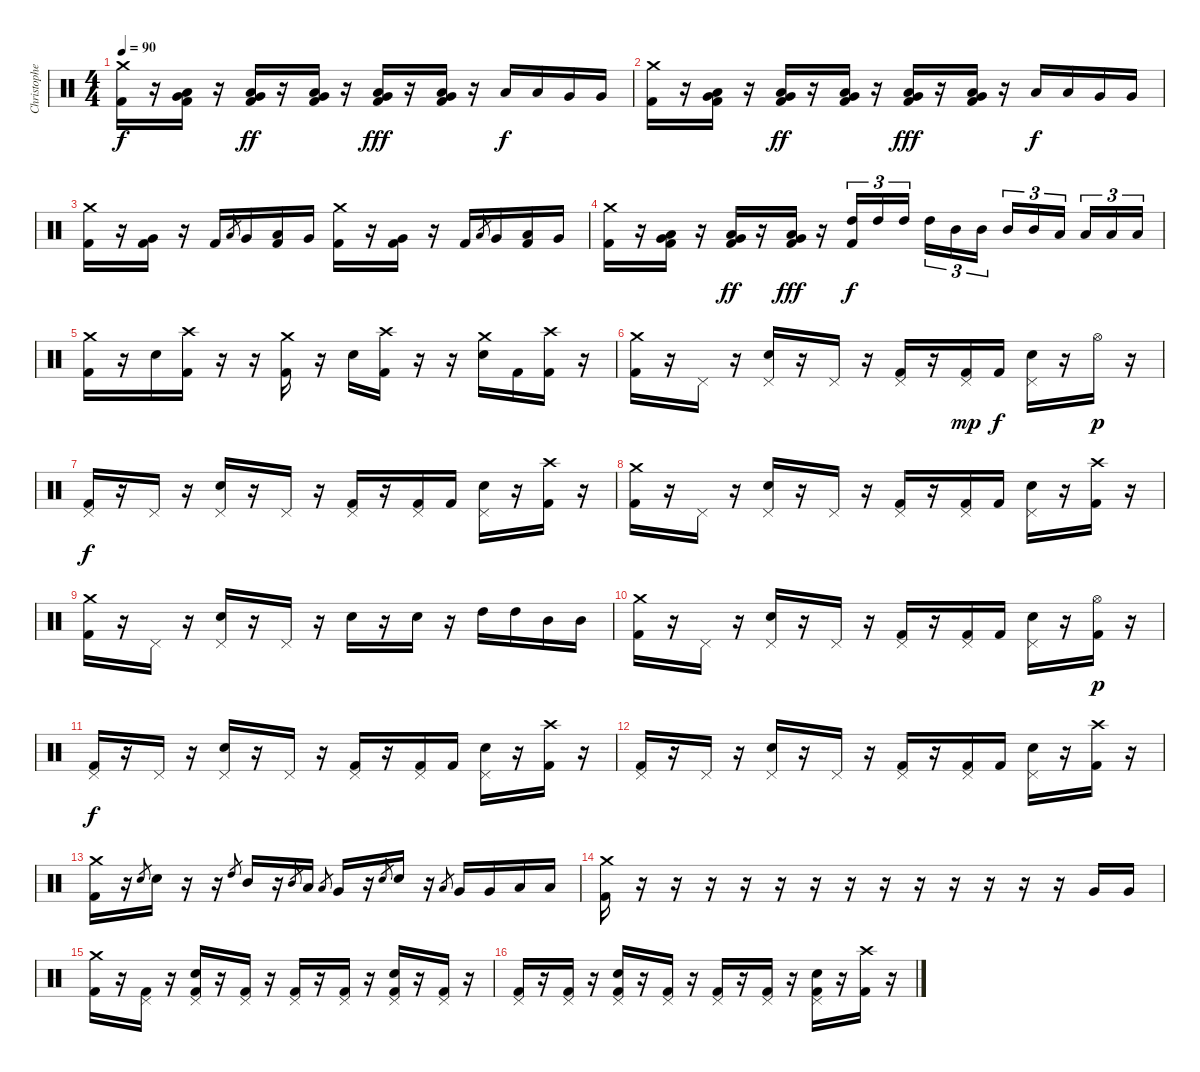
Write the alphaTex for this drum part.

\track ("Christopher Kinder" "Christophe") {instrument percussion}
\staff {score}
\articulation defaults
\ts (4 4)
\tempo 90
\clef neutral
\ks c
("Crash medium (hit)" "Kick (hit) 2").16{dy f} r.16 ("Very Low Tom (hit)" "Low Tom (hit)" "Kick (hit) 2").16 r.16 ("Very Low Tom (hit)" "Low Tom (hit)" "Kick (hit) 2").16{dy ff} r.16 ("Very Low Tom (hit)" "Low Tom (hit)" "Kick (hit) 2").16 r.16 ("Very Low Tom (hit)" "Low Tom (hit)" "Kick (hit) 2").16{dy fff} r.16 ("Very Low Tom (hit)" "Low Tom (hit)" "Kick (hit) 2").16 r.16 "Low Tom (hit)".16{dy f} "Low Tom (hit)".16 "Very Low Tom (hit)".16 "Very Low Tom (hit)".16 |
("Crash medium (hit)" "Kick (hit) 2").16 r.16 ("Very Low Tom (hit)" "Low Tom (hit)" "Kick (hit) 2").16 r.16 ("Very Low Tom (hit)" "Low Tom (hit)" "Kick (hit) 2").16{dy ff} r.16 ("Very Low Tom (hit)" "Low Tom (hit)" "Kick (hit) 2").16 r.16 ("Very Low Tom (hit)" "Low Tom (hit)" "Kick (hit) 2").16{dy fff} r.16 ("Very Low Tom (hit)" "Low Tom (hit)" "Kick (hit) 2").16 r.16 "Low Tom (hit)".16{dy f} "Low Tom (hit)".16 "Very Low Tom (hit)".16 "Very Low Tom (hit)".16 |
("Crash medium (hit)" "Kick (hit) 2").16 r.16 ("Very Low Tom (hit)" "Kick (hit) 2").16 r.16 "Kick (hit) 2".16 "Low Tom (hit)".8{gr} "Very Low Tom (hit)".16 ("Low Tom (hit)" "Kick (hit) 2").16 "Very Low Tom (hit)".16 ("Crash medium (hit)" "Kick (hit) 2").16 r.16 ("Very Low Tom (hit)" "Kick (hit) 2").16 r.16 "Kick (hit) 2".16 "Low Tom (hit)".8{gr} "Very Low Tom (hit)".16 ("Low Tom (hit)" "Kick (hit) 2").16 "Very Low Tom (hit)".16 |
("Crash medium (hit)" "Kick (hit) 2").16 r.16 ("Low Tom (hit)" "Very Low Tom (hit)" "Kick (hit) 2").16 r.16 ("Low Tom (hit)" "Very Low Tom (hit)" "Kick (hit) 2").16{dy ff} r.16 ("Low Tom (hit)" "Very Low Tom (hit)" "Kick (hit) 2").16{dy fff} r.16 ("High Tom (hit)" "Kick (hit) 2").16{tu (3 2) dy f} "High Tom (hit)".16{tu (3 2)} "High Tom (hit)".16{tu (3 2)} "High Tom (hit)".16{tu (3 2)} "Mid Tom (hit)".16{tu (3 2)} "Mid Tom (hit)".16{tu (3 2)} "Mid Tom (hit)".16{tu (3 2)} "Mid Tom (hit)".16{tu (3 2)} "Low Tom (hit)".16{tu (3 2)} "Low Tom (hit)".16{tu (3 2)} "Low Tom (hit)".16{tu (3 2)} "Low Tom (hit)".16{tu (3 2)} |
("Crash medium (hit)" "Kick (hit) 2").16 r.16 "Electric Snare (hit)".16 ("Crash high (hit)" "Kick (hit) 2").16 r.16 r.16 ("Crash medium (hit)" "Kick (hit) 2").16 r.16 "Electric Snare (hit)".16 ("Crash high (hit)" "Kick (hit) 2").16 r.16 r.16 ("Crash medium (hit)" "Electric Snare (hit)").16 "Kick (hit) 2".16 ("Crash high (hit)" "Kick (hit) 2").16 r.16 |
("Crash medium (hit)" "Kick (hit) 2").16 r.16 "Pedal Hi-Hat (hit)".16 r.16 ("Pedal Hi-Hat (hit)" "Electric Snare (hit)").16 r.16 "Pedal Hi-Hat (hit)".16 r.16 ("Pedal Hi-Hat (hit)" "Kick (hit) 2").16 r.16 ("Pedal Hi-Hat (hit)" "Kick (hit) 2").16{dy mp} "Kick (hit) 2".16{dy f} ("Pedal Hi-Hat (hit)" "Electric Snare (hit)").16 r.16 "Hi-Hat (open)".16{dy p} r.16 |
("Pedal Hi-Hat (hit)" "Kick (hit) 2").16{dy f} r.16 "Pedal Hi-Hat (hit)".16 r.16 ("Pedal Hi-Hat (hit)" "Electric Snare (hit)").16 r.16 "Pedal Hi-Hat (hit)".16 r.16 ("Pedal Hi-Hat (hit)" "Kick (hit) 2").16 r.16 ("Pedal Hi-Hat (hit)" "Kick (hit) 2").16 "Kick (hit) 2".16 ("Pedal Hi-Hat (hit)" "Electric Snare (hit)").16 r.16 ("Crash high (hit)" "Kick (hit) 2").16 r.16 |
("Crash medium (hit)" "Kick (hit) 2").16 r.16 "Pedal Hi-Hat (hit)".16 r.16 ("Pedal Hi-Hat (hit)" "Electric Snare (hit)").16 r.16 "Pedal Hi-Hat (hit)".16 r.16 ("Pedal Hi-Hat (hit)" "Kick (hit) 2").16 r.16 ("Pedal Hi-Hat (hit)" "Kick (hit) 2").16 "Kick (hit) 2".16 ("Pedal Hi-Hat (hit)" "Electric Snare (hit)").16 r.16 ("Crash high (hit)" "Kick (hit) 2").16 r.16 |
("Crash medium (hit)" "Kick (hit) 2").16 r.16 "Pedal Hi-Hat (hit)".16 r.16 ("Pedal Hi-Hat (hit)" "Electric Snare (hit)").16 r.16 "Pedal Hi-Hat (hit)".16 r.16 "Electric Snare (hit)".16 r.16 "Electric Snare (hit)".16 r.16 "High Tom (hit)".16 "High Tom (hit)".16 "Mid Tom (hit)".16 "Mid Tom (hit)".16 |
("Crash medium (hit)" "Kick (hit) 2").16 r.16 "Pedal Hi-Hat (hit)".16 r.16 ("Pedal Hi-Hat (hit)" "Electric Snare (hit)").16 r.16 "Pedal Hi-Hat (hit)".16 r.16 ("Pedal Hi-Hat (hit)" "Kick (hit) 2").16 r.16 ("Pedal Hi-Hat (hit)" "Kick (hit) 2").16 "Kick (hit) 2".16 ("Pedal Hi-Hat (hit)" "Electric Snare (hit)").16 r.16 ("Hi-Hat (open)" "Kick (hit) 2").16{dy p} r.16 |
("Pedal Hi-Hat (hit)" "Kick (hit) 2").16{dy f} r.16 "Pedal Hi-Hat (hit)".16 r.16 ("Pedal Hi-Hat (hit)" "Electric Snare (hit)").16 r.16 "Pedal Hi-Hat (hit)".16 r.16 ("Pedal Hi-Hat (hit)" "Kick (hit) 2").16 r.16 ("Pedal Hi-Hat (hit)" "Kick (hit) 2").16 "Kick (hit) 2".16 ("Pedal Hi-Hat (hit)" "Electric Snare (hit)").16 r.16 ("Crash high (hit)" "Kick (hit) 2").16 r.16 |
("Pedal Hi-Hat (hit)" "Kick (hit) 2").16 r.16 "Pedal Hi-Hat (hit)".16 r.16 ("Pedal Hi-Hat (hit)" "Electric Snare (hit)").16 r.16 "Pedal Hi-Hat (hit)".16 r.16 ("Pedal Hi-Hat (hit)" "Kick (hit) 2").16 r.16 ("Pedal Hi-Hat (hit)" "Kick (hit) 2").16 "Kick (hit) 2".16 ("Pedal Hi-Hat (hit)" "Electric Snare (hit)").16 r.16 ("Crash high (hit)" "Kick (hit) 2").16 r.16 |
("Crash medium (hit)" "Kick (hit) 2").16 r.16 "Electric Snare (hit)".8{gr} "Electric Snare (hit)".16 r.16 r.16 "High Tom (hit)".8{gr} "Mid Tom (hit)".16 r.16 "Mid Tom (hit)".8{gr} "Low Tom (hit)".16 "Low Tom (hit)".8{gr} "Very Low Tom (hit)".16 r.16 "Electric Snare (hit)".8{gr} "Electric Snare (hit)".16 r.16 "Low Tom (hit)".8{gr} "Very Low Tom (hit)".16 "Very Low Tom (hit)".16 "Low Floor Tom (hit)".16 "Low Floor Tom (hit)".16 |
("Crash medium (hit)" "Kick (hit) 2").16 r.16 r.16 r.16 r.16 r.16 r.16 r.16 r.16 r.16 r.16 r.16 r.16 r.16 "Very Low Tom (hit)".16 "Very Low Tom (hit)".16 |
("Crash medium (hit)" "Kick (hit) 2").16 r.16 ("Pedal Hi-Hat (hit)" "Kick (hit) 2").16 r.16 ("Pedal Hi-Hat (hit)" "Electric Snare (hit)" "Kick (hit) 2").16 r.16 ("Pedal Hi-Hat (hit)" "Kick (hit) 2").16 r.16 ("Pedal Hi-Hat (hit)" "Kick (hit) 2").16 r.16 ("Pedal Hi-Hat (hit)" "Kick (hit) 2").16 r.16 ("Pedal Hi-Hat (hit)" "Electric Snare (hit)" "Kick (hit) 2").16 r.16 ("Pedal Hi-Hat (hit)" "Kick (hit) 2").16 r.16 |
("Pedal Hi-Hat (hit)" "Kick (hit) 2").16 r.16 ("Pedal Hi-Hat (hit)" "Kick (hit) 2").16 r.16 ("Pedal Hi-Hat (hit)" "Electric Snare (hit)" "Kick (hit) 2").16 r.16 ("Pedal Hi-Hat (hit)" "Kick (hit) 2").16 r.16 ("Pedal Hi-Hat (hit)" "Kick (hit) 2").16 r.16 ("Pedal Hi-Hat (hit)" "Kick (hit) 2").16 r.16 ("Pedal Hi-Hat (hit)" "Electric Snare (hit)" "Kick (hit) 2").16 r.16 ("Crash high (hit)" "Kick (hit) 2").16 r.16
